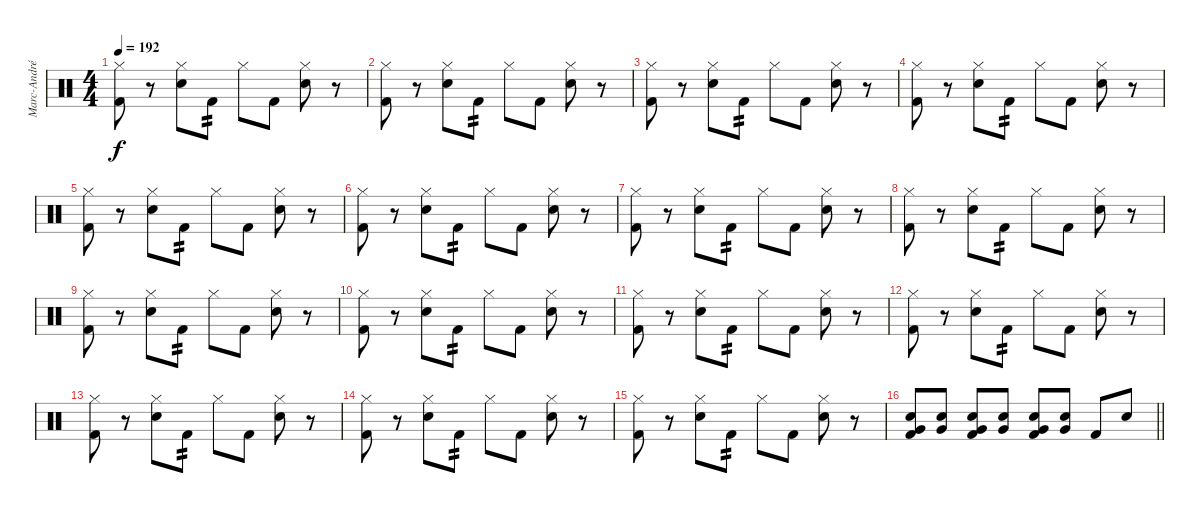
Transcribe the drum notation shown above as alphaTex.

\track ("Marc-André Barabé" "Marc-André") {instrument percussion}
\staff {score}
\articulation defaults
\ts (4 4)
\tempo 192
\clef neutral
\ks c
("Hi-Hat (closed)" "Kick (hit) 2").8{dy f} r.8 ("Hi-Hat (closed)" "Electric Snare (hit)").8 "Kick (hit) 2".8{tp 2} "Hi-Hat (closed)".8 "Kick (hit) 2".8 ("Hi-Hat (closed)" "Electric Snare (hit)").8 r.8 |
("Hi-Hat (closed)" "Kick (hit) 2").8 r.8 ("Hi-Hat (closed)" "Electric Snare (hit)").8 "Kick (hit) 2".8{tp 2} "Hi-Hat (closed)".8 "Kick (hit) 2".8 ("Hi-Hat (closed)" "Electric Snare (hit)").8 r.8 |
("Hi-Hat (closed)" "Kick (hit) 2").8 r.8 ("Hi-Hat (closed)" "Electric Snare (hit)").8 "Kick (hit) 2".8{tp 2} "Hi-Hat (closed)".8 "Kick (hit) 2".8 ("Hi-Hat (closed)" "Electric Snare (hit)").8 r.8 |
("Hi-Hat (closed)" "Kick (hit) 2").8 r.8 ("Hi-Hat (closed)" "Electric Snare (hit)").8 "Kick (hit) 2".8{tp 2} "Hi-Hat (closed)".8 "Kick (hit) 2".8 ("Hi-Hat (closed)" "Electric Snare (hit)").8 r.8 |
("Hi-Hat (closed)" "Kick (hit) 2").8 r.8 ("Hi-Hat (closed)" "Electric Snare (hit)").8 "Kick (hit) 2".8{tp 2} "Hi-Hat (closed)".8 "Kick (hit) 2".8 ("Hi-Hat (closed)" "Electric Snare (hit)").8 r.8 |
("Hi-Hat (closed)" "Kick (hit) 2").8 r.8 ("Hi-Hat (closed)" "Electric Snare (hit)").8 "Kick (hit) 2".8{tp 2} "Hi-Hat (closed)".8 "Kick (hit) 2".8 ("Hi-Hat (closed)" "Electric Snare (hit)").8 r.8 |
("Hi-Hat (closed)" "Kick (hit) 2").8 r.8 ("Hi-Hat (closed)" "Electric Snare (hit)").8 "Kick (hit) 2".8{tp 2} "Hi-Hat (closed)".8 "Kick (hit) 2".8 ("Hi-Hat (closed)" "Electric Snare (hit)").8 r.8 |
("Hi-Hat (closed)" "Kick (hit) 2").8 r.8 ("Hi-Hat (closed)" "Electric Snare (hit)").8 "Kick (hit) 2".8{tp 2} "Hi-Hat (closed)".8 "Kick (hit) 2".8 ("Hi-Hat (closed)" "Electric Snare (hit)").8 r.8 |
("Hi-Hat (closed)" "Kick (hit) 2").8 r.8 ("Hi-Hat (closed)" "Electric Snare (hit)").8 "Kick (hit) 2".8{tp 2} "Hi-Hat (closed)".8 "Kick (hit) 2".8 ("Hi-Hat (closed)" "Electric Snare (hit)").8 r.8 |
("Hi-Hat (closed)" "Kick (hit) 2").8 r.8 ("Hi-Hat (closed)" "Electric Snare (hit)").8 "Kick (hit) 2".8{tp 2} "Hi-Hat (closed)".8 "Kick (hit) 2".8 ("Hi-Hat (closed)" "Electric Snare (hit)").8 r.8 |
("Hi-Hat (closed)" "Kick (hit) 2").8 r.8 ("Hi-Hat (closed)" "Electric Snare (hit)").8 "Kick (hit) 2".8{tp 2} "Hi-Hat (closed)".8 "Kick (hit) 2".8 ("Hi-Hat (closed)" "Electric Snare (hit)").8 r.8 |
("Hi-Hat (closed)" "Kick (hit) 2").8 r.8 ("Hi-Hat (closed)" "Electric Snare (hit)").8 "Kick (hit) 2".8{tp 2} "Hi-Hat (closed)".8 "Kick (hit) 2".8 ("Hi-Hat (closed)" "Electric Snare (hit)").8 r.8 |
("Hi-Hat (closed)" "Kick (hit) 2").8 r.8 ("Hi-Hat (closed)" "Electric Snare (hit)").8 "Kick (hit) 2".8{tp 2} "Hi-Hat (closed)".8 "Kick (hit) 2".8 ("Hi-Hat (closed)" "Electric Snare (hit)").8 r.8 |
("Hi-Hat (closed)" "Kick (hit) 2").8 r.8 ("Hi-Hat (closed)" "Electric Snare (hit)").8 "Kick (hit) 2".8{tp 2} "Hi-Hat (closed)".8 "Kick (hit) 2".8 ("Hi-Hat (closed)" "Electric Snare (hit)").8 r.8 |
("Hi-Hat (closed)" "Kick (hit) 2").8 r.8 ("Hi-Hat (closed)" "Electric Snare (hit)").8 "Kick (hit) 2".8{tp 2} "Hi-Hat (closed)".8 "Kick (hit) 2".8 ("Hi-Hat (closed)" "Electric Snare (hit)").8 r.8 |
\barLineRight lightlight
("Electric Snare (hit)" "Very Low Tom (hit)" "Kick (hit) 2").8 ("Electric Snare (hit)" "Very Low Tom (hit)").8 ("Electric Snare (hit)" "Very Low Tom (hit)" "Kick (hit) 2").8 ("Electric Snare (hit)" "Very Low Tom (hit)").8 ("Electric Snare (hit)" "Very Low Tom (hit)" "Kick (hit) 2").8 ("Electric Snare (hit)" "Very Low Tom (hit)").8 "Kick (hit) 2".8 "Electric Snare (hit)".8
